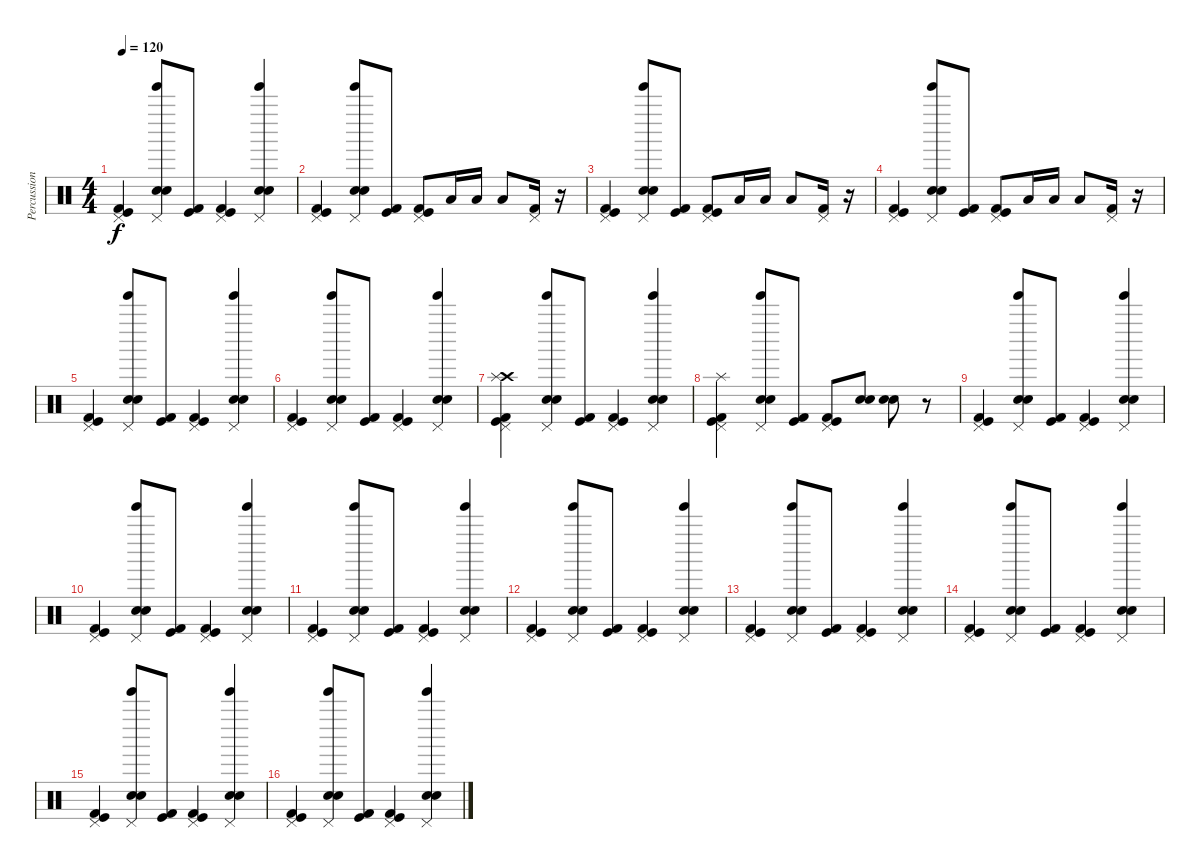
\track ("Percussion" "Percussion") {instrument percussion}
\staff {score}
\articulation defaults
\ts (4 4)
\tempo 120
\clef neutral
\ks c
("Pedal Hi-Hat (hit)" "Kick (hit)" "Kick (hit) 2").4{dy f} ("Tinkle Bell (hit)" "Pedal Hi-Hat (hit)" "Snare (hit) 2" "Electric Snare (hit)").8 ("Kick (hit)" "Kick (hit) 2").8 ("Pedal Hi-Hat (hit)" "Kick (hit)" "Kick (hit) 2").4 ("Tinkle Bell (hit)" "Pedal Hi-Hat (hit)" "Snare (hit) 2" "Electric Snare (hit)").4 |
("Pedal Hi-Hat (hit)" "Kick (hit)" "Kick (hit) 2").4 ("Tinkle Bell (hit)" "Pedal Hi-Hat (hit)" "Snare (hit) 2" "Electric Snare (hit)").8 ("Kick (hit)" "Kick (hit) 2").8 ("Pedal Hi-Hat (hit)" "Kick (hit)" "Kick (hit) 2").8 "Low Tom (hit)".16 "Low Tom (hit)".16 "Low Tom (hit)".8 ("Pedal Hi-Hat (hit)" "Kick (hit) 2").16 r.16 |
("Pedal Hi-Hat (hit)" "Kick (hit)" "Kick (hit) 2").4 ("Tinkle Bell (hit)" "Pedal Hi-Hat (hit)" "Snare (hit) 2" "Electric Snare (hit)").8 ("Kick (hit)" "Kick (hit) 2").8 ("Pedal Hi-Hat (hit)" "Kick (hit)" "Kick (hit) 2").8 "Low Tom (hit)".16 "Low Tom (hit)".16 "Low Tom (hit)".8 ("Pedal Hi-Hat (hit)" "Kick (hit) 2").16 r.16 |
("Pedal Hi-Hat (hit)" "Kick (hit)" "Kick (hit) 2").4 ("Tinkle Bell (hit)" "Pedal Hi-Hat (hit)" "Snare (hit) 2" "Electric Snare (hit)").8 ("Kick (hit)" "Kick (hit) 2").8 ("Pedal Hi-Hat (hit)" "Kick (hit)" "Kick (hit) 2").8 "Low Tom (hit)".16 "Low Tom (hit)".16 "Low Tom (hit)".8 ("Pedal Hi-Hat (hit)" "Kick (hit) 2").16 r.16 |
("Pedal Hi-Hat (hit)" "Kick (hit)" "Kick (hit) 2").4 ("Tinkle Bell (hit)" "Pedal Hi-Hat (hit)" "Snare (hit) 2" "Electric Snare (hit)").8 ("Kick (hit)" "Kick (hit) 2").8 ("Pedal Hi-Hat (hit)" "Kick (hit)" "Kick (hit) 2").4 ("Tinkle Bell (hit)" "Pedal Hi-Hat (hit)" "Snare (hit) 2" "Electric Snare (hit)").4 |
("Pedal Hi-Hat (hit)" "Kick (hit)" "Kick (hit) 2").4 ("Tinkle Bell (hit)" "Pedal Hi-Hat (hit)" "Snare (hit) 2" "Electric Snare (hit)").8 ("Kick (hit)" "Kick (hit) 2").8 ("Pedal Hi-Hat (hit)" "Kick (hit)" "Kick (hit) 2").4 ("Tinkle Bell (hit)" "Pedal Hi-Hat (hit)" "Snare (hit) 2" "Electric Snare (hit)").4 |
("Crash high (hit)" "Pedal Hi-Hat (hit)" "Splash (hit)" "Kick (hit)" "Kick (hit) 2").4 ("Tinkle Bell (hit)" "Pedal Hi-Hat (hit)" "Snare (hit) 2" "Electric Snare (hit)").8 ("Kick (hit)" "Kick (hit) 2").8 ("Pedal Hi-Hat (hit)" "Kick (hit)" "Kick (hit) 2").4 ("Tinkle Bell (hit)" "Pedal Hi-Hat (hit)" "Snare (hit) 2" "Electric Snare (hit)").4 |
("Splash (hit)" "Pedal Hi-Hat (hit)" "Kick (hit)" "Kick (hit) 2").4 ("Tinkle Bell (hit)" "Pedal Hi-Hat (hit)" "Snare (hit) 2" "Electric Snare (hit)").8 ("Kick (hit)" "Kick (hit) 2").8 ("Pedal Hi-Hat (hit)" "Kick (hit)" "Kick (hit) 2").8 ("Snare (hit) 2" "Snare (hit) 2").8 ("Snare (hit) 2" "Snare (hit) 2").8 r.8 |
("Pedal Hi-Hat (hit)" "Kick (hit)" "Kick (hit) 2").4 ("Tinkle Bell (hit)" "Pedal Hi-Hat (hit)" "Snare (hit) 2" "Electric Snare (hit)").8 ("Kick (hit)" "Kick (hit) 2").8 ("Pedal Hi-Hat (hit)" "Kick (hit)" "Kick (hit) 2").4 ("Tinkle Bell (hit)" "Pedal Hi-Hat (hit)" "Snare (hit) 2" "Electric Snare (hit)").4 |
("Pedal Hi-Hat (hit)" "Kick (hit)" "Kick (hit) 2").4 ("Tinkle Bell (hit)" "Pedal Hi-Hat (hit)" "Snare (hit) 2" "Electric Snare (hit)").8 ("Kick (hit)" "Kick (hit) 2").8 ("Pedal Hi-Hat (hit)" "Kick (hit)" "Kick (hit) 2").4 ("Tinkle Bell (hit)" "Pedal Hi-Hat (hit)" "Snare (hit) 2" "Electric Snare (hit)").4 |
("Pedal Hi-Hat (hit)" "Kick (hit)" "Kick (hit) 2").4 ("Tinkle Bell (hit)" "Pedal Hi-Hat (hit)" "Snare (hit) 2" "Electric Snare (hit)").8 ("Kick (hit)" "Kick (hit) 2").8 ("Pedal Hi-Hat (hit)" "Kick (hit)" "Kick (hit) 2").4 ("Tinkle Bell (hit)" "Pedal Hi-Hat (hit)" "Snare (hit) 2" "Electric Snare (hit)").4 |
("Pedal Hi-Hat (hit)" "Kick (hit)" "Kick (hit) 2").4 ("Tinkle Bell (hit)" "Pedal Hi-Hat (hit)" "Snare (hit) 2" "Electric Snare (hit)").8 ("Kick (hit)" "Kick (hit) 2").8 ("Pedal Hi-Hat (hit)" "Kick (hit)" "Kick (hit) 2").4 ("Tinkle Bell (hit)" "Pedal Hi-Hat (hit)" "Snare (hit) 2" "Electric Snare (hit)").4 |
("Pedal Hi-Hat (hit)" "Kick (hit)" "Kick (hit) 2").4 ("Tinkle Bell (hit)" "Pedal Hi-Hat (hit)" "Snare (hit) 2" "Electric Snare (hit)").8 ("Kick (hit)" "Kick (hit) 2").8 ("Pedal Hi-Hat (hit)" "Kick (hit)" "Kick (hit) 2").4 ("Tinkle Bell (hit)" "Pedal Hi-Hat (hit)" "Snare (hit) 2" "Electric Snare (hit)").4 |
("Pedal Hi-Hat (hit)" "Kick (hit)" "Kick (hit) 2").4 ("Tinkle Bell (hit)" "Pedal Hi-Hat (hit)" "Snare (hit) 2" "Electric Snare (hit)").8 ("Kick (hit)" "Kick (hit) 2").8 ("Pedal Hi-Hat (hit)" "Kick (hit)" "Kick (hit) 2").4 ("Tinkle Bell (hit)" "Pedal Hi-Hat (hit)" "Snare (hit) 2" "Electric Snare (hit)").4 |
("Pedal Hi-Hat (hit)" "Kick (hit)" "Kick (hit) 2").4 ("Tinkle Bell (hit)" "Pedal Hi-Hat (hit)" "Snare (hit) 2" "Electric Snare (hit)").8 ("Kick (hit)" "Kick (hit) 2").8 ("Pedal Hi-Hat (hit)" "Kick (hit)" "Kick (hit) 2").4 ("Tinkle Bell (hit)" "Pedal Hi-Hat (hit)" "Snare (hit) 2" "Electric Snare (hit)").4 |
("Pedal Hi-Hat (hit)" "Kick (hit)" "Kick (hit) 2").4 ("Tinkle Bell (hit)" "Pedal Hi-Hat (hit)" "Snare (hit) 2" "Electric Snare (hit)").8 ("Kick (hit)" "Kick (hit) 2").8 ("Pedal Hi-Hat (hit)" "Kick (hit)" "Kick (hit) 2").4 ("Tinkle Bell (hit)" "Pedal Hi-Hat (hit)" "Snare (hit) 2" "Electric Snare (hit)").4
